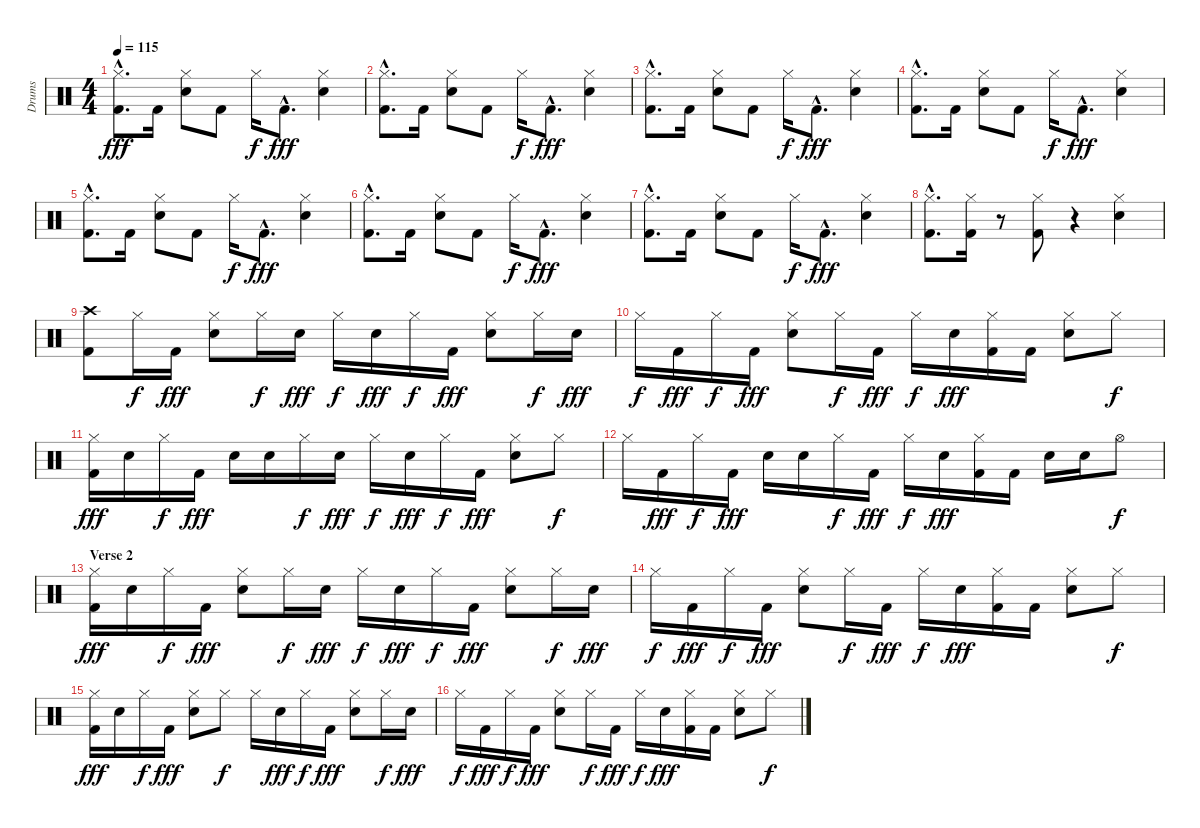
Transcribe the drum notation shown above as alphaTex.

\track ("Drums" "Drums") {instrument percussion}
\staff {score}
\articulation defaults
\ts (4 4)
\tempo 115
\clef neutral
\ks c
("Hi-Hat (closed)"{hac} "Kick (hit) 2"{hac}).8{d dy fff} "Kick (hit) 2".16 ("Hi-Hat (closed)" "Electric Snare (hit)").8 "Kick (hit) 2".8 "Hi-Hat (closed)".16{dy f} "Kick (hit) 2"{hac}.8{d dy fff} ("Hi-Hat (closed)" "Electric Snare (hit)").4 |
("Hi-Hat (closed)"{hac} "Kick (hit) 2"{hac}).8{d} "Kick (hit) 2".16 ("Hi-Hat (closed)" "Electric Snare (hit)").8 "Kick (hit) 2".8 "Hi-Hat (closed)".16{dy f} "Kick (hit) 2"{hac}.8{d dy fff} ("Hi-Hat (closed)" "Electric Snare (hit)").4 |
("Hi-Hat (closed)"{hac} "Kick (hit) 2"{hac}).8{d} "Kick (hit) 2".16 ("Hi-Hat (closed)" "Electric Snare (hit)").8 "Kick (hit) 2".8 "Hi-Hat (closed)".16{dy f} "Kick (hit) 2"{hac}.8{d dy fff} ("Hi-Hat (closed)" "Electric Snare (hit)").4 |
("Hi-Hat (closed)"{hac} "Kick (hit) 2"{hac}).8{d} "Kick (hit) 2".16 ("Hi-Hat (closed)" "Electric Snare (hit)").8 "Kick (hit) 2".8 "Hi-Hat (closed)".16{dy f} "Kick (hit) 2"{hac}.8{d dy fff} ("Hi-Hat (closed)" "Electric Snare (hit)").4 |
("Hi-Hat (closed)"{hac} "Kick (hit) 2"{hac}).8{d} "Kick (hit) 2".16 ("Hi-Hat (closed)" "Electric Snare (hit)").8 "Kick (hit) 2".8 "Hi-Hat (closed)".16{dy f} "Kick (hit) 2"{hac}.8{d dy fff} ("Hi-Hat (closed)" "Electric Snare (hit)").4 |
("Hi-Hat (closed)"{hac} "Kick (hit) 2"{hac}).8{d} "Kick (hit) 2".16 ("Hi-Hat (closed)" "Electric Snare (hit)").8 "Kick (hit) 2".8 "Hi-Hat (closed)".16{dy f} "Kick (hit) 2"{hac}.8{d dy fff} ("Hi-Hat (closed)" "Electric Snare (hit)").4 |
("Hi-Hat (closed)"{hac} "Kick (hit) 2"{hac}).8{d} "Kick (hit) 2".16 ("Hi-Hat (closed)" "Electric Snare (hit)").8 "Kick (hit) 2".8 "Hi-Hat (closed)".16{dy f} "Kick (hit) 2"{hac}.8{d dy fff} ("Hi-Hat (closed)" "Electric Snare (hit)").4 |
("Hi-Hat (closed)"{hac} "Kick (hit) 2"{hac}).8{d} ("Hi-Hat (closed)" "Kick (hit) 2").16 r.8 ("Hi-Hat (closed)" "Kick (hit) 2").8 r.4 ("Hi-Hat (closed)" "Electric Snare (hit)").4 |
("Crash high (hit)" "Kick (hit) 2").8 "Hi-Hat (closed)".16{dy f} "Kick (hit) 2".16{dy fff} ("Hi-Hat (closed)" "Electric Snare (hit)").8 "Hi-Hat (closed)".16{dy f} "Electric Snare (hit)".16{dy fff} "Hi-Hat (closed)".16{dy f} "Electric Snare (hit)".16{dy fff} "Hi-Hat (closed)".16{dy f} "Kick (hit) 2".16{dy fff} ("Hi-Hat (closed)" "Electric Snare (hit)").8 "Hi-Hat (closed)".16{dy f} "Electric Snare (hit)".16{dy fff} |
"Hi-Hat (closed)".16{dy f} "Kick (hit) 2".16{dy fff} "Hi-Hat (closed)".16{dy f} "Kick (hit) 2".16{dy fff} ("Hi-Hat (closed)" "Electric Snare (hit)").8 "Hi-Hat (closed)".16{dy f} "Kick (hit) 2".16{dy fff} "Hi-Hat (closed)".16{dy f} "Electric Snare (hit)".16{dy fff} ("Hi-Hat (closed)" "Kick (hit) 2").16 "Kick (hit) 2".16 ("Hi-Hat (closed)" "Electric Snare (hit)").8 "Hi-Hat (closed)".8{dy f} |
("Hi-Hat (closed)" "Kick (hit) 2").16{dy fff} "Electric Snare (hit)".16 "Hi-Hat (closed)".16{dy f} "Kick (hit) 2".16{dy fff} "Electric Snare (hit)".16 "Electric Snare (hit)".16 "Hi-Hat (closed)".16{dy f} "Electric Snare (hit)".16{dy fff} "Hi-Hat (closed)".16{dy f} "Electric Snare (hit)".16{dy fff} "Hi-Hat (closed)".16{dy f} "Kick (hit) 2".16{dy fff} ("Hi-Hat (closed)" "Electric Snare (hit)").8 "Hi-Hat (closed)".8{dy f} |
"Hi-Hat (closed)".16 "Kick (hit) 2".16{dy fff} "Hi-Hat (closed)".16{dy f} "Kick (hit) 2".16{dy fff} "Electric Snare (hit)".16 "Electric Snare (hit)".16 "Hi-Hat (closed)".16{dy f} "Kick (hit) 2".16{dy fff} "Hi-Hat (closed)".16{dy f} "Electric Snare (hit)".16{dy fff} ("Hi-Hat (closed)" "Kick (hit) 2").16 "Kick (hit) 2".16 "Electric Snare (hit)".16 "Electric Snare (hit)".16 "Hi-Hat (open)".8{dy f} |
\section ("" "Verse 2")
("Hi-Hat (closed)" "Kick (hit) 2").16{dy fff} "Electric Snare (hit)".16 "Hi-Hat (closed)".16{dy f} "Kick (hit) 2".16{dy fff} ("Hi-Hat (closed)" "Electric Snare (hit)").8 "Hi-Hat (closed)".16{dy f} "Electric Snare (hit)".16{dy fff} "Hi-Hat (closed)".16{dy f} "Electric Snare (hit)".16{dy fff} "Hi-Hat (closed)".16{dy f} "Kick (hit) 2".16{dy fff} ("Hi-Hat (closed)" "Electric Snare (hit)").8 "Hi-Hat (closed)".16{dy f} "Electric Snare (hit)".16{dy fff} |
"Hi-Hat (closed)".16{dy f} "Kick (hit) 2".16{dy fff} "Hi-Hat (closed)".16{dy f} "Kick (hit) 2".16{dy fff} ("Hi-Hat (closed)" "Electric Snare (hit)").8 "Hi-Hat (closed)".16{dy f} "Kick (hit) 2".16{dy fff} "Hi-Hat (closed)".16{dy f} "Electric Snare (hit)".16{dy fff} ("Hi-Hat (closed)" "Kick (hit) 2").16 "Kick (hit) 2".16 ("Hi-Hat (closed)" "Electric Snare (hit)").8 "Hi-Hat (closed)".8{dy f} |
("Hi-Hat (closed)" "Kick (hit) 2").16{dy fff} "Electric Snare (hit)".16 "Hi-Hat (closed)".16{dy f} "Kick (hit) 2".16{dy fff} ("Hi-Hat (closed)" "Electric Snare (hit)").8 "Hi-Hat (closed)".8{dy f} "Hi-Hat (closed)".16 "Electric Snare (hit)".16{dy fff} "Hi-Hat (closed)".16{dy f} "Kick (hit) 2".16{dy fff} ("Hi-Hat (closed)" "Electric Snare (hit)").8 "Hi-Hat (closed)".16{dy f} "Electric Snare (hit)".16{dy fff} |
"Hi-Hat (closed)".16{dy f} "Kick (hit) 2".16{dy fff} "Hi-Hat (closed)".16{dy f} "Kick (hit) 2".16{dy fff} ("Hi-Hat (closed)" "Electric Snare (hit)").8 "Hi-Hat (closed)".16{dy f} "Kick (hit) 2".16{dy fff} "Hi-Hat (closed)".16{dy f} "Electric Snare (hit)".16{dy fff} ("Hi-Hat (closed)" "Kick (hit) 2").16 "Kick (hit) 2".16 ("Hi-Hat (closed)" "Electric Snare (hit)").8 "Hi-Hat (closed)".8{dy f}
